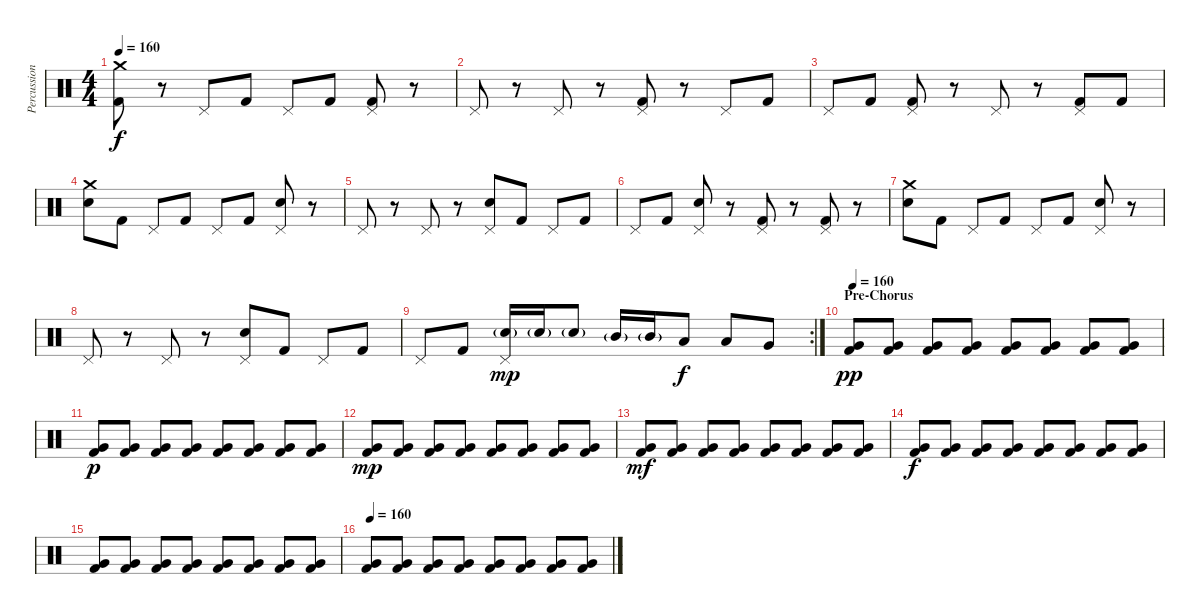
\track ("Percussion" "Percussion") {instrument percussion}
\staff {score}
\articulation defaults
\ts (4 4)
\tempo 160
\clef neutral
\ks c
("Crash medium (hit)" "Kick (hit) 2").8{dy f} r.8 "Pedal Hi-Hat (hit)".8 "Kick (hit) 2".8 "Pedal Hi-Hat (hit)".8 "Kick (hit) 2".8 ("Pedal Hi-Hat (hit)" "Kick (hit) 2").8 r.8 |
"Pedal Hi-Hat (hit)".8 r.8 "Pedal Hi-Hat (hit)".8 r.8 ("Pedal Hi-Hat (hit)" "Kick (hit) 2").8 r.8 "Pedal Hi-Hat (hit)".8 "Kick (hit) 2".8 |
"Pedal Hi-Hat (hit)".8 "Kick (hit) 2".8 ("Pedal Hi-Hat (hit)" "Kick (hit) 2").8 r.8 "Pedal Hi-Hat (hit)".8 r.8 ("Pedal Hi-Hat (hit)" "Kick (hit) 2").8 "Kick (hit) 2".8 |
("Crash medium (hit)" "Electric Snare (hit)").8 "Kick (hit) 2".8 "Pedal Hi-Hat (hit)".8 "Kick (hit) 2".8 "Pedal Hi-Hat (hit)".8 "Kick (hit) 2".8 ("Pedal Hi-Hat (hit)" "Electric Snare (hit)").8 r.8 |
"Pedal Hi-Hat (hit)".8 r.8 "Pedal Hi-Hat (hit)".8 r.8 ("Pedal Hi-Hat (hit)" "Electric Snare (hit)").8 "Kick (hit) 2".8 "Pedal Hi-Hat (hit)".8 "Kick (hit) 2".8 |
"Pedal Hi-Hat (hit)".8 "Kick (hit) 2".8 ("Pedal Hi-Hat (hit)" "Electric Snare (hit)").8 r.8 ("Pedal Hi-Hat (hit)" "Kick (hit) 2").8 r.8 ("Pedal Hi-Hat (hit)" "Kick (hit) 2").8 r.8 |
("Crash medium (hit)" "Electric Snare (hit)").8 "Kick (hit) 2".8 "Pedal Hi-Hat (hit)".8 "Kick (hit) 2".8 "Pedal Hi-Hat (hit)".8 "Kick (hit) 2".8 ("Pedal Hi-Hat (hit)" "Electric Snare (hit)").8 r.8 |
"Pedal Hi-Hat (hit)".8 r.8 "Pedal Hi-Hat (hit)".8 r.8 ("Pedal Hi-Hat (hit)" "Electric Snare (hit)").8 "Kick (hit) 2".8 "Pedal Hi-Hat (hit)".8 "Kick (hit) 2".8 |
\rc 2 "Pedal Hi-Hat (hit)".8 "Kick (hit) 2".8
("Pedal Hi-Hat (hit)" "Electric Snare (hit)"{g}).16{dy mp} "Electric Snare (hit)"{g}.16 "Electric Snare (hit)"{g}.8 "Mid Tom (hit)"{g}.16 "Mid Tom (hit)"{g}.16 "Low Tom (hit)".8{dy f} "Low Tom (hit)".8 "Very Low Tom (hit)".8 |
\section ("" "Pre-Chorus")
\tempo 160
("Very Low Tom (hit)" "Kick (hit) 2").8{dy pp} ("Very Low Tom (hit)" "Kick (hit) 2").8 ("Very Low Tom (hit)" "Kick (hit) 2").8 ("Very Low Tom (hit)" "Kick (hit) 2").8 ("Very Low Tom (hit)" "Kick (hit) 2").8 ("Very Low Tom (hit)" "Kick (hit) 2").8 ("Very Low Tom (hit)" "Kick (hit) 2").8 ("Very Low Tom (hit)" "Kick (hit) 2").8 |
("Very Low Tom (hit)" "Kick (hit) 2").8{dy p} ("Very Low Tom (hit)" "Kick (hit) 2").8 ("Very Low Tom (hit)" "Kick (hit) 2").8 ("Very Low Tom (hit)" "Kick (hit) 2").8 ("Very Low Tom (hit)" "Kick (hit) 2").8 ("Very Low Tom (hit)" "Kick (hit) 2").8 ("Very Low Tom (hit)" "Kick (hit) 2").8 ("Very Low Tom (hit)" "Kick (hit) 2").8 |
("Very Low Tom (hit)" "Kick (hit) 2").8{dy mp} ("Very Low Tom (hit)" "Kick (hit) 2").8 ("Very Low Tom (hit)" "Kick (hit) 2").8 ("Very Low Tom (hit)" "Kick (hit) 2").8 ("Very Low Tom (hit)" "Kick (hit) 2").8 ("Very Low Tom (hit)" "Kick (hit) 2").8 ("Very Low Tom (hit)" "Kick (hit) 2").8 ("Very Low Tom (hit)" "Kick (hit) 2").8 |
("Very Low Tom (hit)" "Kick (hit) 2").8{dy mf} ("Very Low Tom (hit)" "Kick (hit) 2").8 ("Very Low Tom (hit)" "Kick (hit) 2").8 ("Very Low Tom (hit)" "Kick (hit) 2").8 ("Very Low Tom (hit)" "Kick (hit) 2").8 ("Very Low Tom (hit)" "Kick (hit) 2").8 ("Very Low Tom (hit)" "Kick (hit) 2").8 ("Very Low Tom (hit)" "Kick (hit) 2").8 |
("Very Low Tom (hit)" "Kick (hit) 2").8{dy f} ("Very Low Tom (hit)" "Kick (hit) 2").8 ("Very Low Tom (hit)" "Kick (hit) 2").8 ("Very Low Tom (hit)" "Kick (hit) 2").8 ("Very Low Tom (hit)" "Kick (hit) 2").8 ("Very Low Tom (hit)" "Kick (hit) 2").8 ("Very Low Tom (hit)" "Kick (hit) 2").8 ("Very Low Tom (hit)" "Kick (hit) 2").8 |
("Very Low Tom (hit)" "Kick (hit) 2").8 ("Very Low Tom (hit)" "Kick (hit) 2").8 ("Very Low Tom (hit)" "Kick (hit) 2").8 ("Very Low Tom (hit)" "Kick (hit) 2").8 ("Very Low Tom (hit)" "Kick (hit) 2").8 ("Very Low Tom (hit)" "Kick (hit) 2").8 ("Very Low Tom (hit)" "Kick (hit) 2").8 ("Very Low Tom (hit)" "Kick (hit) 2").8 |
\tempo 160
("Very Low Tom (hit)" "Kick (hit) 2").8 ("Very Low Tom (hit)" "Kick (hit) 2").8 ("Very Low Tom (hit)" "Kick (hit) 2").8 ("Very Low Tom (hit)" "Kick (hit) 2").8 ("Very Low Tom (hit)" "Kick (hit) 2").8 ("Very Low Tom (hit)" "Kick (hit) 2").8 ("Very Low Tom (hit)" "Kick (hit) 2").8 ("Very Low Tom (hit)" "Kick (hit) 2").8
